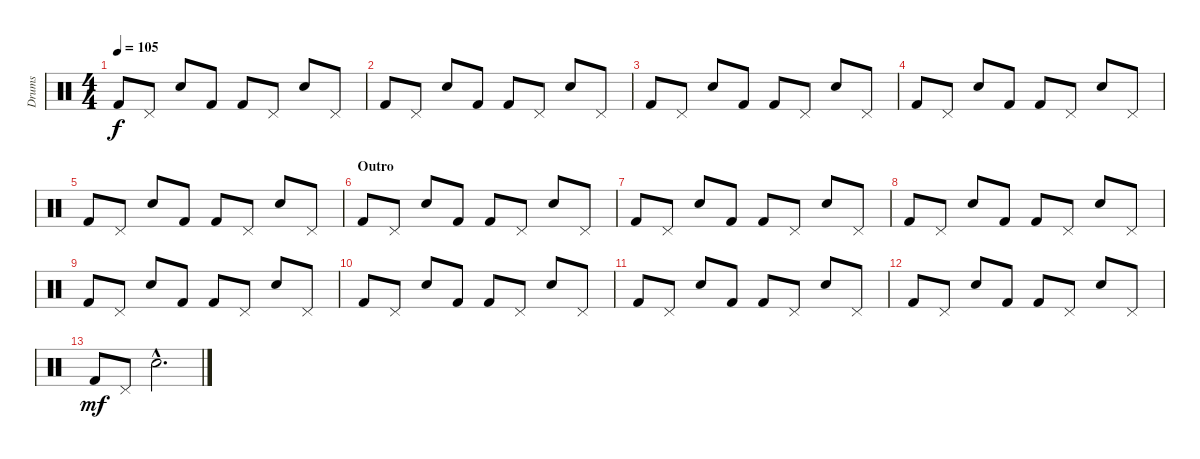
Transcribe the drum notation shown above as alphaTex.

\track ("Drums" "Drums") {instrument percussion}
\staff {score}
\articulation defaults
\ts (4 4)
\tempo 105
\clef neutral
\ks c "Kick (hit) 2".8{dy f} "Pedal Hi-Hat (hit)".8 "Electric Snare (hit)".8 "Kick (hit) 2".8 "Kick (hit) 2".8 "Pedal Hi-Hat (hit)".8 "Electric Snare (hit)".8 "Pedal Hi-Hat (hit)".8
|
"Kick (hit) 2".8 "Pedal Hi-Hat (hit)".8 "Electric Snare (hit)".8 "Kick (hit) 2".8 "Kick (hit) 2".8 "Pedal Hi-Hat (hit)".8 "Electric Snare (hit)".8 "Pedal Hi-Hat (hit)".8 |
"Kick (hit) 2".8 "Pedal Hi-Hat (hit)".8 "Electric Snare (hit)".8 "Kick (hit) 2".8 "Kick (hit) 2".8 "Pedal Hi-Hat (hit)".8 "Electric Snare (hit)".8 "Pedal Hi-Hat (hit)".8 |
"Kick (hit) 2".8 "Pedal Hi-Hat (hit)".8 "Electric Snare (hit)".8 "Kick (hit) 2".8 "Kick (hit) 2".8 "Pedal Hi-Hat (hit)".8 "Electric Snare (hit)".8 "Pedal Hi-Hat (hit)".8 |
"Kick (hit) 2".8 "Pedal Hi-Hat (hit)".8 "Electric Snare (hit)".8 "Kick (hit) 2".8 "Kick (hit) 2".8 "Pedal Hi-Hat (hit)".8 "Electric Snare (hit)".8 "Pedal Hi-Hat (hit)".8 |
\section ("" "Outro")
"Kick (hit) 2".8 "Pedal Hi-Hat (hit)".8 "Electric Snare (hit)".8 "Kick (hit) 2".8 "Kick (hit) 2".8 "Pedal Hi-Hat (hit)".8 "Electric Snare (hit)".8 "Pedal Hi-Hat (hit)".8 |
"Kick (hit) 2".8 "Pedal Hi-Hat (hit)".8 "Electric Snare (hit)".8 "Kick (hit) 2".8 "Kick (hit) 2".8 "Pedal Hi-Hat (hit)".8 "Electric Snare (hit)".8 "Pedal Hi-Hat (hit)".8 |
"Kick (hit) 2".8 "Pedal Hi-Hat (hit)".8 "Electric Snare (hit)".8 "Kick (hit) 2".8 "Kick (hit) 2".8 "Pedal Hi-Hat (hit)".8 "Electric Snare (hit)".8 "Pedal Hi-Hat (hit)".8 |
"Kick (hit) 2".8 "Pedal Hi-Hat (hit)".8 "Electric Snare (hit)".8 "Kick (hit) 2".8 "Kick (hit) 2".8 "Pedal Hi-Hat (hit)".8 "Electric Snare (hit)".8 "Pedal Hi-Hat (hit)".8 |
"Kick (hit) 2".8 "Pedal Hi-Hat (hit)".8 "Electric Snare (hit)".8 "Kick (hit) 2".8 "Kick (hit) 2".8 "Pedal Hi-Hat (hit)".8 "Electric Snare (hit)".8 "Pedal Hi-Hat (hit)".8 |
"Kick (hit) 2".8 "Pedal Hi-Hat (hit)".8 "Electric Snare (hit)".8 "Kick (hit) 2".8 "Kick (hit) 2".8 "Pedal Hi-Hat (hit)".8 "Electric Snare (hit)".8 "Pedal Hi-Hat (hit)".8 |
"Kick (hit) 2".8 "Pedal Hi-Hat (hit)".8 "Electric Snare (hit)".8 "Kick (hit) 2".8 "Kick (hit) 2".8 "Pedal Hi-Hat (hit)".8 "Electric Snare (hit)".8 "Pedal Hi-Hat (hit)".8 |
"Kick (hit) 2".8{dy mf} "Pedal Hi-Hat (hit)".8 "Electric Snare (hit)"{hac}.2{d}
